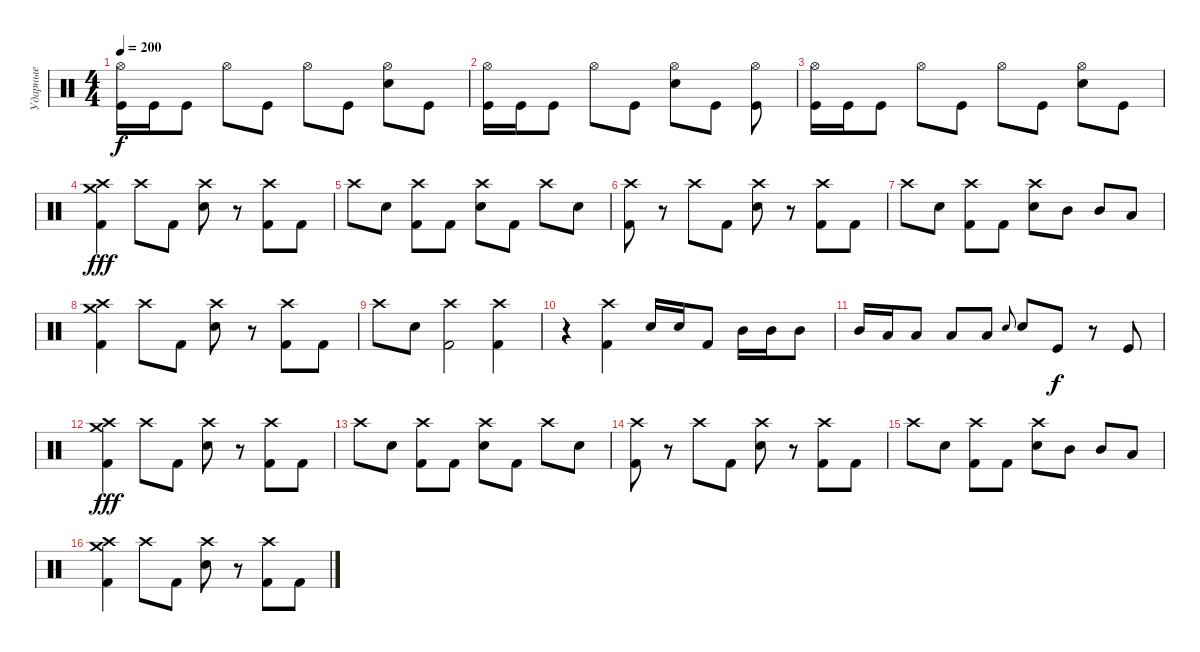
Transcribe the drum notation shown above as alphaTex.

\track ("Ударные" "Ударные") {instrument percussion}
\staff {score}
\articulation defaults
\ts (4 4)
\tempo 200
\clef neutral
\ks c
("Kick (hit)" "Hi-Hat (open)").16{dy f} "Kick (hit)".16 "Kick (hit)".8 "Hi-Hat (open)".8 "Kick (hit)".8 "Hi-Hat (open)".8 "Kick (hit)".8 ("Snare (hit) 2" "Hi-Hat (open)").8 "Kick (hit)".8 |
("Kick (hit)" "Hi-Hat (open)").16 "Kick (hit)".16 "Kick (hit)".8 "Hi-Hat (open)".8 "Kick (hit)".8 ("Snare (hit) 2" "Hi-Hat (open)").8 "Kick (hit)".8 ("Kick (hit)" "Hi-Hat (open)").8 |
("Kick (hit)" "Hi-Hat (open)").16 "Kick (hit)".16 "Kick (hit)".8 "Hi-Hat (open)".8 "Kick (hit)".8 "Hi-Hat (open)".8 "Kick (hit)".8 ("Snare (hit) 2" "Hi-Hat (open)").8 "Kick (hit)".8 |
("Crash high (hit)" "Kick (hit) 2" "Crash medium (hit)").4{dy fff} "Crash high (hit)".8 "Kick (hit) 2".8 ("Crash high (hit)" "Electric Snare (hit)").8 r.8 ("Crash high (hit)" "Kick (hit) 2").8 "Kick (hit) 2".8 |
"Crash high (hit)".8 "Electric Snare (hit)".8 ("Crash high (hit)" "Kick (hit) 2").8 "Kick (hit) 2".8 ("Crash high (hit)" "Electric Snare (hit)").8 "Kick (hit) 2".8 "Crash high (hit)".8 "Electric Snare (hit)".8 |
("Crash high (hit)" "Kick (hit) 2").8 r.8 "Crash high (hit)".8 "Kick (hit) 2".8 ("Crash high (hit)" "Electric Snare (hit)").8 r.8 ("Crash high (hit)" "Kick (hit) 2").8 "Kick (hit) 2".8 |
"Crash high (hit)".8 "Electric Snare (hit)".8 ("Crash high (hit)" "Kick (hit) 2").8 "Kick (hit) 2".8 ("Crash high (hit)" "Electric Snare (hit)").8 "Mid Tom (hit)".8 "Mid Tom (hit)".8 "Low Tom (hit)".8 |
("Crash high (hit)" "Kick (hit) 2" "Crash medium (hit)").4 "Crash high (hit)".8 "Kick (hit) 2".8 ("Crash high (hit)" "Electric Snare (hit)").8 r.8 ("Crash high (hit)" "Kick (hit) 2").8 "Kick (hit) 2".8 |
"Crash high (hit)".8 "Electric Snare (hit)".8 ("Crash high (hit)" "Kick (hit) 2").2 ("Crash high (hit)" "Kick (hit) 2").4 |
r.4 ("Crash high (hit)" "Kick (hit) 2").4 "Electric Snare (hit)".16 "Electric Snare (hit)".16 "Kick (hit) 2".8 "Mid Tom (hit)".16 "Mid Tom (hit)".16 "Mid Tom (hit)".8 |
"Mid Tom (hit)".16 "Low Tom (hit)".16 "Low Tom (hit)".8 "Low Floor Tom (hit)".8 "Low Floor Tom (hit)".8 "Electric Snare (hit)".8{gr onbeat} "Electric Snare (hit)".8 "Kick (hit)".8{dy f} r.8 "Kick (hit)".8 |
("Crash high (hit)" "Kick (hit) 2" "Crash medium (hit)").4{dy fff} "Crash high (hit)".8 "Kick (hit) 2".8 ("Crash high (hit)" "Electric Snare (hit)").8 r.8 ("Crash high (hit)" "Kick (hit) 2").8 "Kick (hit) 2".8 |
"Crash high (hit)".8 "Electric Snare (hit)".8 ("Crash high (hit)" "Kick (hit) 2").8 "Kick (hit) 2".8 ("Crash high (hit)" "Electric Snare (hit)").8 "Kick (hit) 2".8 "Crash high (hit)".8 "Electric Snare (hit)".8 |
("Crash high (hit)" "Kick (hit) 2").8 r.8 "Crash high (hit)".8 "Kick (hit) 2".8 ("Crash high (hit)" "Electric Snare (hit)").8 r.8 ("Crash high (hit)" "Kick (hit) 2").8 "Kick (hit) 2".8 |
"Crash high (hit)".8 "Electric Snare (hit)".8 ("Crash high (hit)" "Kick (hit) 2").8 "Kick (hit) 2".8 ("Crash high (hit)" "Electric Snare (hit)").8 "Mid Tom (hit)".8 "Mid Tom (hit)".8 "Low Tom (hit)".8 |
("Crash high (hit)" "Kick (hit) 2" "Crash medium (hit)").4 "Crash high (hit)".8 "Kick (hit) 2".8 ("Crash high (hit)" "Electric Snare (hit)").8 r.8 ("Crash high (hit)" "Kick (hit) 2").8 "Kick (hit) 2".8
